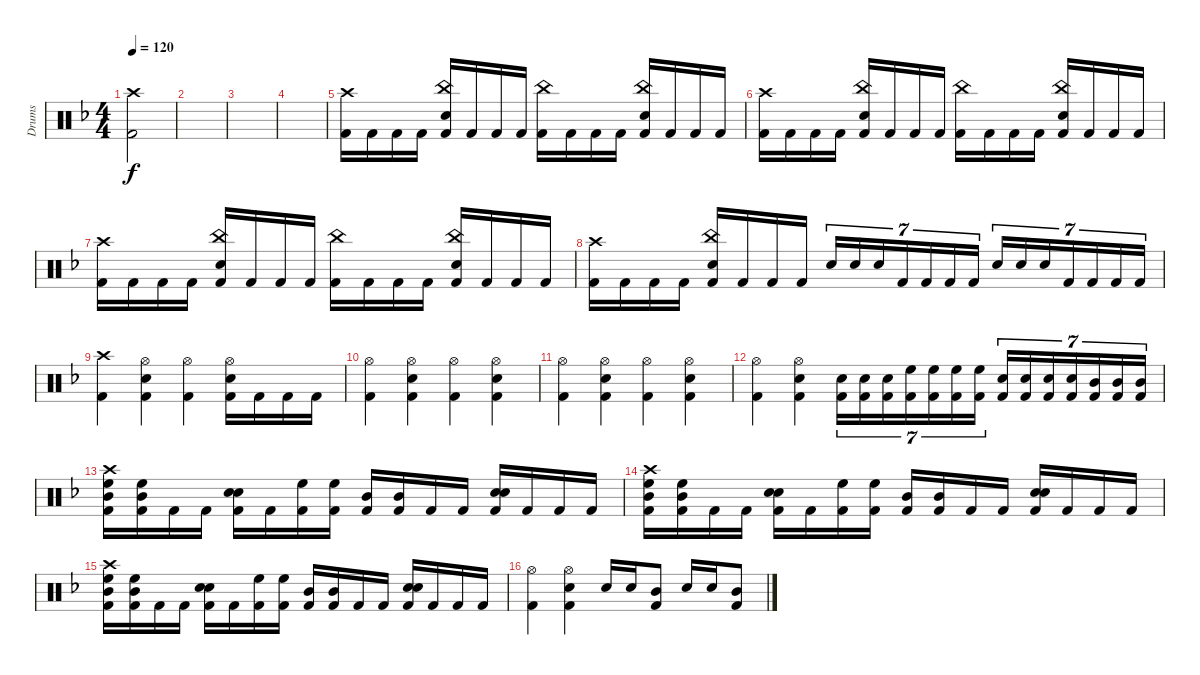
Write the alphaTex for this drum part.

\track ("Drums" "Drums") {instrument percussion}
\staff {score}
\articulation defaults
\ts (4 4)
\tempo 120
\clef neutral
\ks dminor
("Crash high (hit)" "Kick (hit) 2").2{dy f} |
|
|
|
("Crash high (hit)" "Kick (hit) 2").16 "Kick (hit) 2".16 "Kick (hit) 2".16 "Kick (hit) 2".16 ("China (hit)" "Snare (hit) 2" "Kick (hit) 2").16 "Kick (hit) 2".16 "Kick (hit) 2".16 "Kick (hit) 2".16 ("China (hit)" "Kick (hit) 2").16 "Kick (hit) 2".16 "Kick (hit) 2".16 "Kick (hit) 2".16 ("China (hit)" "Snare (hit) 2" "Kick (hit) 2").16 "Kick (hit) 2".16 "Kick (hit) 2".16 "Kick (hit) 2".16 |
("Crash high (hit)" "Kick (hit) 2").16 "Kick (hit) 2".16 "Kick (hit) 2".16 "Kick (hit) 2".16 ("China (hit)" "Snare (hit) 2" "Kick (hit) 2").16 "Kick (hit) 2".16 "Kick (hit) 2".16 "Kick (hit) 2".16 ("China (hit)" "Kick (hit) 2").16 "Kick (hit) 2".16 "Kick (hit) 2".16 "Kick (hit) 2".16 ("China (hit)" "Snare (hit) 2" "Kick (hit) 2").16 "Kick (hit) 2".16 "Kick (hit) 2".16 "Kick (hit) 2".16 |
("Crash high (hit)" "Kick (hit) 2").16 "Kick (hit) 2".16 "Kick (hit) 2".16 "Kick (hit) 2".16 ("China (hit)" "Snare (hit) 2" "Kick (hit) 2").16 "Kick (hit) 2".16 "Kick (hit) 2".16 "Kick (hit) 2".16 ("China (hit)" "Kick (hit) 2").16 "Kick (hit) 2".16 "Kick (hit) 2".16 "Kick (hit) 2".16 ("China (hit)" "Snare (hit) 2" "Kick (hit) 2").16 "Kick (hit) 2".16 "Kick (hit) 2".16 "Kick (hit) 2".16 |
("Crash high (hit)" "Kick (hit) 2").16 "Kick (hit) 2".16 "Kick (hit) 2".16 "Kick (hit) 2".16 ("China (hit)" "Snare (hit) 2" "Kick (hit) 2").16 "Kick (hit) 2".16 "Kick (hit) 2".16 "Kick (hit) 2".16 "Snare (hit) 2".16{tu (7 4)} "Snare (hit) 2".16{tu (7 4)} "Snare (hit) 2".16{tu (7 4)} "Kick (hit) 2".16{tu (7 4)} "Kick (hit) 2".16{tu (7 4)} "Kick (hit) 2".16{tu (7 4)} "Kick (hit) 2".16{tu (7 4)} "Snare (hit) 2".16{tu (7 4)} "Snare (hit) 2".16{tu (7 4)} "Snare (hit) 2".16{tu (7 4)} "Kick (hit) 2".16{tu (7 4)} "Kick (hit) 2".16{tu (7 4)} "Kick (hit) 2".16{tu (7 4)} "Kick (hit) 2".16{tu (7 4)} |
("Crash high (hit)" "Kick (hit) 2").4 ("Hi-Hat (open)" "Snare (hit) 2" "Kick (hit) 2").4 ("Hi-Hat (open)" "Kick (hit) 2").4 ("Hi-Hat (open)" "Snare (hit) 2" "Kick (hit) 2").16 "Kick (hit) 2".16 "Kick (hit) 2".16 "Kick (hit) 2".16 |
("Hi-Hat (open)" "Kick (hit) 2").4 ("Hi-Hat (open)" "Snare (hit) 2" "Kick (hit) 2").4 ("Hi-Hat (open)" "Kick (hit) 2").4 ("Hi-Hat (open)" "Snare (hit) 2" "Kick (hit) 2").4 |
("Hi-Hat (open)" "Kick (hit) 2").4 ("Hi-Hat (open)" "Snare (hit) 2" "Kick (hit) 2").4 ("Hi-Hat (open)" "Kick (hit) 2").4 ("Hi-Hat (open)" "Snare (hit) 2" "Kick (hit) 2").4 |
("Hi-Hat (open)" "Kick (hit) 2").4 ("Hi-Hat (open)" "Snare (hit) 2" "Kick (hit) 2").4 ("Snare (hit) 2" "Kick (hit) 2").16{tu (7 4)} ("Snare (hit) 2" "Kick (hit) 2").16{tu (7 4)} ("Snare (hit) 2" "Kick (hit) 2").16{tu (7 4)} ("High Floor Tom (hit)" "Kick (hit) 2").16{tu (7 4)} ("High Floor Tom (hit)" "Kick (hit) 2").16{tu (7 4)} ("High Floor Tom (hit)" "Kick (hit) 2").16{tu (7 4)} ("High Floor Tom (hit)" "Kick (hit) 2").16{tu (7 4)} ("Snare (hit) 2" "Kick (hit) 2").16{tu (7 4)} ("Snare (hit) 2" "Kick (hit) 2").16{tu (7 4)} ("Snare (hit) 2" "Kick (hit) 2").16{tu (7 4)} ("Snare (hit) 2" "Kick (hit) 2").16{tu (7 4)} ("Mid Tom (hit)" "Kick (hit) 2").16{tu (7 4)} ("Mid Tom (hit)" "Kick (hit) 2").16{tu (7 4)} ("Mid Tom (hit)" "Kick (hit) 2").16{tu (7 4)} |
("Crash high (hit)" "High Floor Tom (hit)" "Mid Tom (hit)" "Kick (hit) 2").16 ("High Floor Tom (hit)" "Mid Tom (hit)" "Kick (hit) 2").16 "Kick (hit) 2".16 "Kick (hit) 2".16 ("Snare (hit) 2" "Snare (hit) 2" "Kick (hit) 2").16 "Kick (hit) 2".16 ("High Floor Tom (hit)" "Kick (hit) 2").16 ("High Floor Tom (hit)" "Kick (hit) 2").16 ("Mid Tom (hit)" "Kick (hit) 2").16 ("Mid Tom (hit)" "Kick (hit) 2").16 "Kick (hit) 2".16 "Kick (hit) 2".16 ("Snare (hit) 2" "Snare (hit) 2" "Kick (hit) 2").16 "Kick (hit) 2".16 "Kick (hit) 2".16 "Kick (hit) 2".16 |
("Crash high (hit)" "High Floor Tom (hit)" "Mid Tom (hit)" "Kick (hit) 2").16 ("High Floor Tom (hit)" "Mid Tom (hit)" "Kick (hit) 2").16 "Kick (hit) 2".16 "Kick (hit) 2".16 ("Snare (hit) 2" "Snare (hit) 2" "Kick (hit) 2").16 "Kick (hit) 2".16 ("High Floor Tom (hit)" "Kick (hit) 2").16 ("High Floor Tom (hit)" "Kick (hit) 2").16 ("Mid Tom (hit)" "Kick (hit) 2").16 ("Mid Tom (hit)" "Kick (hit) 2").16 "Kick (hit) 2".16 "Kick (hit) 2".16 ("Snare (hit) 2" "Snare (hit) 2" "Kick (hit) 2").16 "Kick (hit) 2".16 "Kick (hit) 2".16 "Kick (hit) 2".16 |
("Crash high (hit)" "High Floor Tom (hit)" "Mid Tom (hit)" "Kick (hit) 2").16 ("High Floor Tom (hit)" "Mid Tom (hit)" "Kick (hit) 2").16 "Kick (hit) 2".16 "Kick (hit) 2".16 ("Snare (hit) 2" "Snare (hit) 2" "Kick (hit) 2").16 "Kick (hit) 2".16 ("High Floor Tom (hit)" "Kick (hit) 2").16 ("High Floor Tom (hit)" "Kick (hit) 2").16 ("Mid Tom (hit)" "Kick (hit) 2").16 ("Mid Tom (hit)" "Kick (hit) 2").16 "Kick (hit) 2".16 "Kick (hit) 2".16 ("Snare (hit) 2" "Snare (hit) 2" "Kick (hit) 2").16 "Kick (hit) 2".16 "Kick (hit) 2".16 "Kick (hit) 2".16 |
("Hi-Hat (open)" "Kick (hit) 2").4 ("Hi-Hat (open)" "Snare (hit) 2" "Kick (hit) 2").4 "Snare (hit) 2".16 "Snare (hit) 2".16 ("Mid Tom (hit)" "Kick (hit) 2").8 "Snare (hit) 2".16 "Snare (hit) 2".16 ("Mid Tom (hit)" "Kick (hit) 2").8
